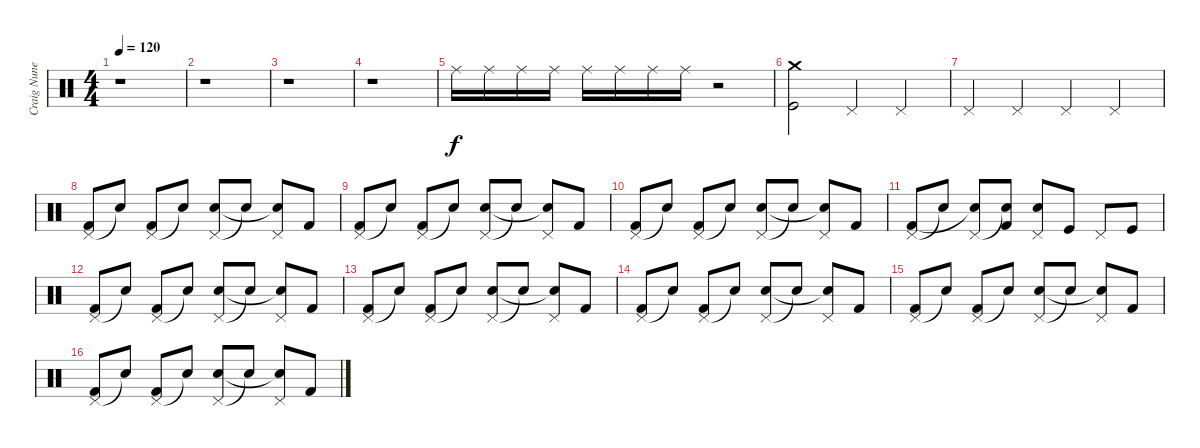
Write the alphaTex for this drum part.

\track ("Craig Nunenmacher" "Craig Nune") {instrument percussion}
\staff {score}
\articulation defaults
\ts (4 4)
\tempo 120
\clef neutral
\ks c
r.1{dy f} |
r.1 |
r.1 |
r.1 |
"Ride (middle)".16 "Ride (middle)".16 "Ride (middle)".16 "Ride (middle)".16 "Ride (middle)".16 "Ride (middle)".16 "Ride (middle)".16 "Ride (middle)".16 r.2 |
("Crash medium (hit)" "Kick (hit)").2 "Pedal Hi-Hat (hit)".4 "Pedal Hi-Hat (hit)".4 |
"Pedal Hi-Hat (hit)".4 "Pedal Hi-Hat (hit)".4 "Pedal Hi-Hat (hit)".4 "Pedal Hi-Hat (hit)".4 |
("Pedal Hi-Hat (hit)" "Kick (hit) 2").8 "Snare (hit)"{t}.8 ("Pedal Hi-Hat (hit)" "Kick (hit) 2").8 "Snare (hit)"{t}.8 ("Pedal Hi-Hat (hit)" "Snare (hit) 2").8 "Snare (hit)"{t}.8 ("Pedal Hi-Hat (hit)" "Snare (hit)"{t}).8 "Kick (hit) 2".8 |
("Pedal Hi-Hat (hit)" "Kick (hit) 2").8 "Snare (hit)"{t}.8 ("Pedal Hi-Hat (hit)" "Kick (hit) 2").8 "Snare (hit)"{t}.8 ("Pedal Hi-Hat (hit)" "Snare (hit) 2").8 "Snare (hit)"{t}.8 ("Pedal Hi-Hat (hit)" "Snare (hit)"{t}).8 "Kick (hit) 2".8 |
("Pedal Hi-Hat (hit)" "Kick (hit) 2").8 "Snare (hit)"{t}.8 ("Pedal Hi-Hat (hit)" "Kick (hit) 2").8 "Snare (hit)"{t}.8 ("Pedal Hi-Hat (hit)" "Snare (hit) 2").8 "Snare (hit)"{t}.8 ("Pedal Hi-Hat (hit)" "Snare (hit)"{t}).8 "Kick (hit) 2".8 |
("Pedal Hi-Hat (hit)" "Kick (hit) 2").8 "Snare (hit)"{t}.8 ("Pedal Hi-Hat (hit)" "Snare (hit)"{t}).8 ("Snare (hit)"{t} "Kick (hit) 2").8 ("Pedal Hi-Hat (hit)" "Snare (hit) 2").8 "Kick (hit)".8 "Pedal Hi-Hat (hit)".8 "Kick (hit)".8 |
("Pedal Hi-Hat (hit)" "Kick (hit) 2").8 "Snare (hit)"{t}.8 ("Pedal Hi-Hat (hit)" "Kick (hit) 2").8 "Snare (hit)"{t}.8 ("Pedal Hi-Hat (hit)" "Snare (hit) 2").8 "Snare (hit)"{t}.8 ("Pedal Hi-Hat (hit)" "Snare (hit)"{t}).8 "Kick (hit) 2".8 |
("Pedal Hi-Hat (hit)" "Kick (hit) 2").8 "Snare (hit)"{t}.8 ("Pedal Hi-Hat (hit)" "Kick (hit) 2").8 "Snare (hit)"{t}.8 ("Pedal Hi-Hat (hit)" "Snare (hit) 2").8 "Snare (hit)"{t}.8 ("Pedal Hi-Hat (hit)" "Snare (hit)"{t}).8 "Kick (hit) 2".8 |
("Pedal Hi-Hat (hit)" "Kick (hit) 2").8 "Snare (hit)"{t}.8 ("Pedal Hi-Hat (hit)" "Kick (hit) 2").8 "Snare (hit)"{t}.8 ("Pedal Hi-Hat (hit)" "Snare (hit) 2").8 "Snare (hit)"{t}.8 ("Pedal Hi-Hat (hit)" "Snare (hit)"{t}).8 "Kick (hit) 2".8 |
("Pedal Hi-Hat (hit)" "Kick (hit) 2").8 "Snare (hit)"{t}.8 ("Pedal Hi-Hat (hit)" "Kick (hit) 2").8 "Snare (hit)"{t}.8 ("Pedal Hi-Hat (hit)" "Snare (hit) 2").8 "Snare (hit)"{t}.8 ("Pedal Hi-Hat (hit)" "Snare (hit)"{t}).8 "Kick (hit) 2".8 |
("Pedal Hi-Hat (hit)" "Kick (hit) 2").8 "Snare (hit)"{t}.8 ("Pedal Hi-Hat (hit)" "Kick (hit) 2").8 "Snare (hit)"{t}.8 ("Pedal Hi-Hat (hit)" "Snare (hit) 2").8 "Snare (hit)"{t}.8 ("Pedal Hi-Hat (hit)" "Snare (hit)"{t}).8 "Kick (hit) 2".8
